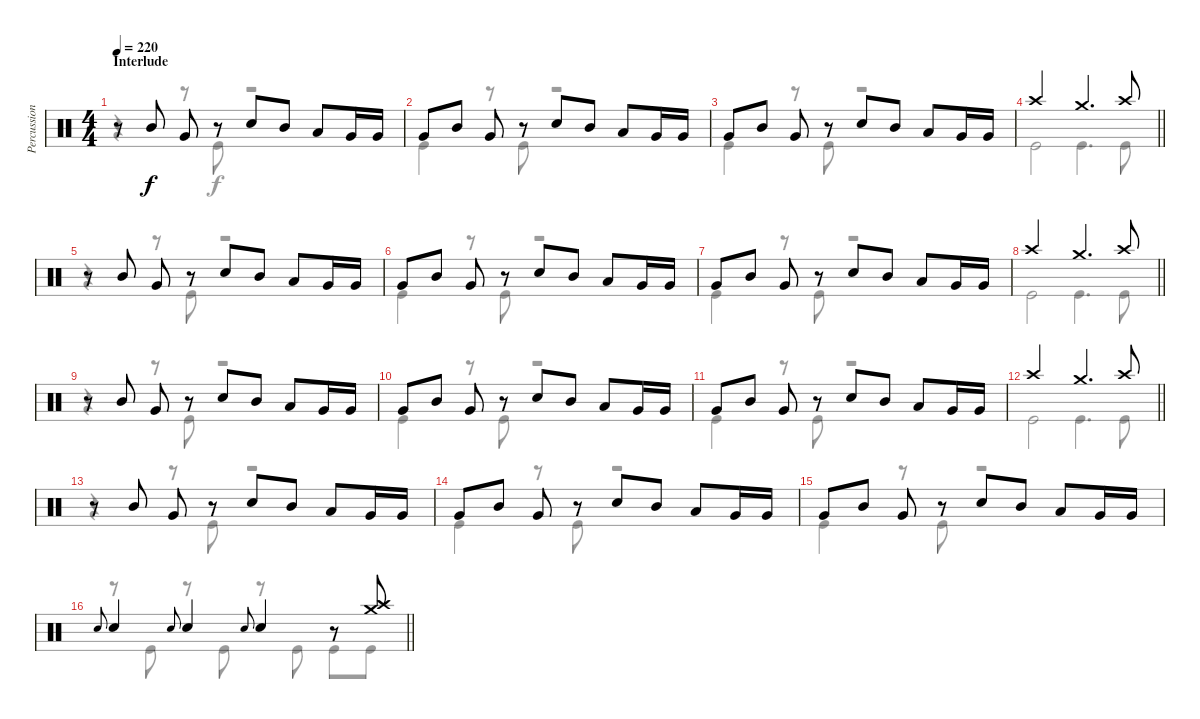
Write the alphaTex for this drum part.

\track ("Percussion" "Percussion") {instrument percussion}
\staff {score}
\articulation defaults
\voice
\ts (4 4)
\section ("" "Interlude")
\tempo 220
\clef neutral
\ks c
r.8{dy f} "Mid Tom (hit)".8 "Very Low Tom (hit)".8 r.8 "Electric Snare (hit)".8 "Mid Tom (hit)".8 "Low Tom (hit)".8 "Very Low Tom (hit)".16 "Very Low Tom (hit)".16 |
"Very Low Tom (hit)".8 "Mid Tom (hit)".8 "Very Low Tom (hit)".8 r.8 "Electric Snare (hit)".8 "Mid Tom (hit)".8 "Low Tom (hit)".8 "Very Low Tom (hit)".16 "Very Low Tom (hit)".16 |
"Very Low Tom (hit)".8 "Mid Tom (hit)".8 "Very Low Tom (hit)".8 r.8 "Electric Snare (hit)".8 "Mid Tom (hit)".8 "Low Tom (hit)".8 "Very Low Tom (hit)".16 "Very Low Tom (hit)".16 |
\barLineRight lightlight "Crash high (hit)".2 "Crash medium (hit)".4{d} "Crash high (hit)".8
|
r.8 "Mid Tom (hit)".8 "Very Low Tom (hit)".8 r.8 "Electric Snare (hit)".8 "Mid Tom (hit)".8 "Low Tom (hit)".8 "Very Low Tom (hit)".16 "Very Low Tom (hit)".16 |
"Very Low Tom (hit)".8 "Mid Tom (hit)".8 "Very Low Tom (hit)".8 r.8 "Electric Snare (hit)".8 "Mid Tom (hit)".8 "Low Tom (hit)".8 "Very Low Tom (hit)".16 "Very Low Tom (hit)".16 |
"Very Low Tom (hit)".8 "Mid Tom (hit)".8 "Very Low Tom (hit)".8 r.8 "Electric Snare (hit)".8 "Mid Tom (hit)".8 "Low Tom (hit)".8 "Very Low Tom (hit)".16 "Very Low Tom (hit)".16 |
\barLineRight lightlight "Crash high (hit)".2 "Crash medium (hit)".4{d} "Crash high (hit)".8
|
r.8 "Mid Tom (hit)".8 "Very Low Tom (hit)".8 r.8 "Electric Snare (hit)".8 "Mid Tom (hit)".8 "Low Tom (hit)".8 "Very Low Tom (hit)".16 "Very Low Tom (hit)".16 |
"Very Low Tom (hit)".8 "Mid Tom (hit)".8 "Very Low Tom (hit)".8 r.8 "Electric Snare (hit)".8 "Mid Tom (hit)".8 "Low Tom (hit)".8 "Very Low Tom (hit)".16 "Very Low Tom (hit)".16 |
"Very Low Tom (hit)".8 "Mid Tom (hit)".8 "Very Low Tom (hit)".8 r.8 "Electric Snare (hit)".8 "Mid Tom (hit)".8 "Low Tom (hit)".8 "Very Low Tom (hit)".16 "Very Low Tom (hit)".16 |
\barLineRight lightlight "Crash high (hit)".2 "Crash medium (hit)".4{d} "Crash high (hit)".8
|
r.8 "Mid Tom (hit)".8 "Very Low Tom (hit)".8 r.8 "Electric Snare (hit)".8 "Mid Tom (hit)".8 "Low Tom (hit)".8 "Very Low Tom (hit)".16 "Very Low Tom (hit)".16 |
"Very Low Tom (hit)".8 "Mid Tom (hit)".8 "Very Low Tom (hit)".8 r.8 "Electric Snare (hit)".8 "Mid Tom (hit)".8 "Low Tom (hit)".8 "Very Low Tom (hit)".16 "Very Low Tom (hit)".16 |
"Very Low Tom (hit)".8 "Mid Tom (hit)".8 "Very Low Tom (hit)".8 r.8 "Electric Snare (hit)".8 "Mid Tom (hit)".8 "Low Tom (hit)".8 "Very Low Tom (hit)".16 "Very Low Tom (hit)".16 |
\barLineRight lightlight "Electric Snare (hit)".8{gr onbeat} "Electric Snare (hit)".4 "Electric Snare (hit)".8{gr onbeat} "Electric Snare (hit)".4 "Electric Snare (hit)".8{gr onbeat} "Electric Snare (hit)".4
r.8 ("Crash medium (hit)" "Crash high (hit)").8
\voice
\clef neutral
\ottava regular
\simile none
\ks c
r.4{dy f} r.8 "Kick (hit)".8 r.2 |
"Kick (hit)".4 r.8 "Kick (hit)".8 r.2 |
"Kick (hit)".4 r.8 "Kick (hit)".8 r.2 |
\barLineRight lightlight "Kick (hit)".2 "Kick (hit)".4{d} "Kick (hit)".8
|
r.4 r.8 "Kick (hit)".8 r.2 |
"Kick (hit)".4 r.8 "Kick (hit)".8 r.2 |
"Kick (hit)".4 r.8 "Kick (hit)".8 r.2 |
\barLineRight lightlight "Kick (hit)".2 "Kick (hit)".4{d} "Kick (hit)".8
|
r.4 r.8 "Kick (hit)".8 r.2 |
"Kick (hit)".4 r.8 "Kick (hit)".8 r.2 |
"Kick (hit)".4 r.8 "Kick (hit)".8 r.2 |
\barLineRight lightlight "Kick (hit)".2 "Kick (hit)".4{d} "Kick (hit)".8
|
r.4 r.8 "Kick (hit)".8 r.2 |
"Kick (hit)".4 r.8 "Kick (hit)".8 r.2 |
"Kick (hit)".4 r.8 "Kick (hit)".8 r.2 |
\barLineRight lightlight
r.8 "Kick (hit)".8 r.8 "Kick (hit)".8 r.8 "Kick (hit)".8 "Kick (hit)".8 "Kick (hit)".8
